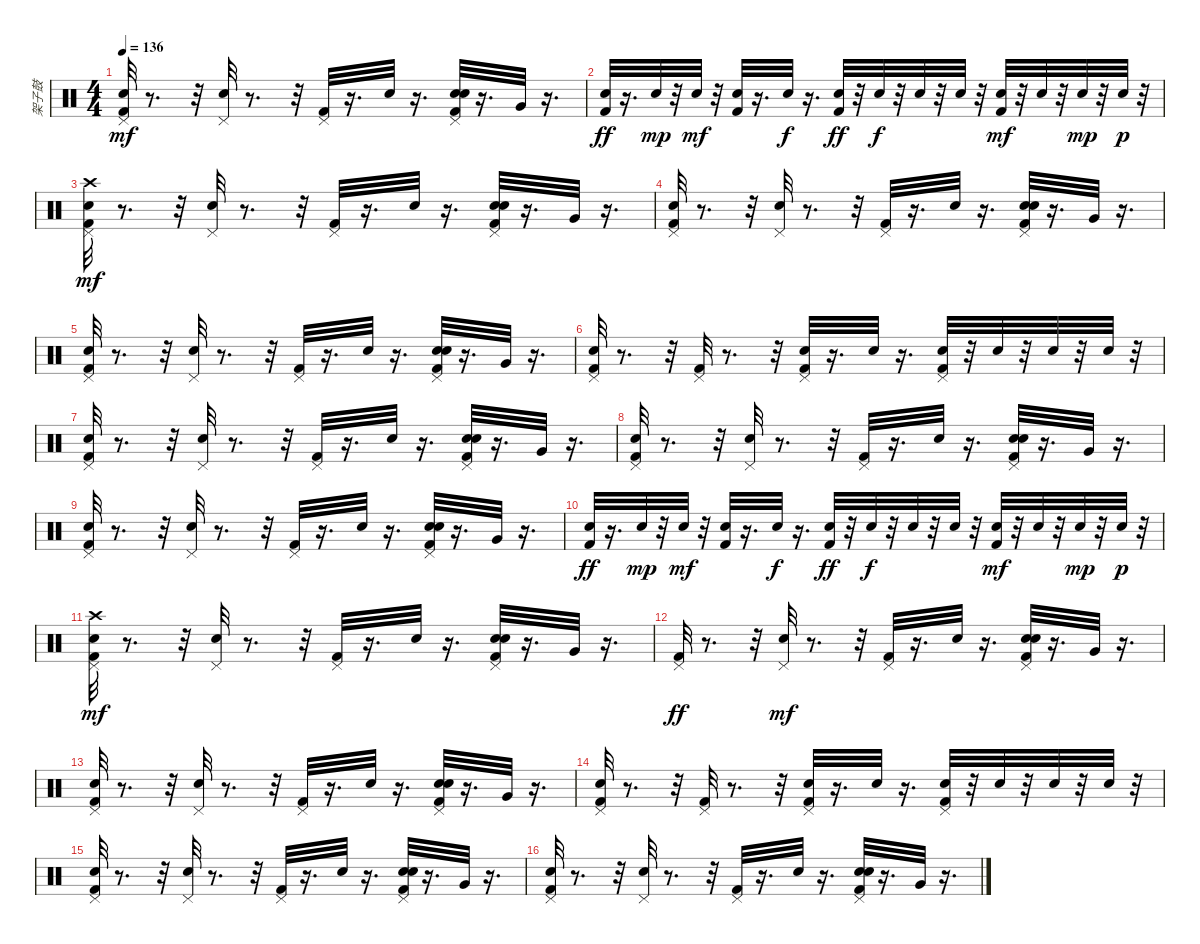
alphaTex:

\track ("架子鼓" "架子鼓") {instrument percussion}
\staff {score}
\articulation defaults
\ts (4 4)
\tempo 136
\clef neutral
\ks c
("Pedal Hi-Hat (hit)" "Kick (hit) 2" "Metronome (bell)").32{dy mf} r.8{d} r.32 ("Pedal Hi-Hat (hit)" "Metronome (bell)").32 r.8{d} r.32 ("Pedal Hi-Hat (hit)" "Kick (hit) 2").32 r.16{d} "Metronome (bell)".32 r.16{d} ("Pedal Hi-Hat (hit)" "Electric Snare (hit)" "Kick (hit) 2" "Metronome (bell)").32 r.16{d} "Very Low Tom (hit)".32 r.16{d} |
("Metronome (bell)" "Kick (hit) 2").32{dy ff} r.16{d} "Metronome (bell)".32{dy mp} r.32 "Metronome (bell)".32{dy mf} r.32 ("Metronome (bell)" "Kick (hit) 2").32 r.16{d} "Metronome (bell)".32{dy f} r.16{d} ("Kick (hit) 2" "Metronome (bell)").32{dy ff} r.32 "Metronome (bell)".32{dy f} r.32 "Metronome (bell)".32 r.32 "Metronome (bell)".32 r.32 ("Kick (hit) 2" "Metronome (bell)").32{dy mf} r.32 "Metronome (bell)".32 r.32 "Metronome (bell)".32{dy mp} r.32 "Metronome (bell)".32{dy p} r.32 |
("Pedal Hi-Hat (hit)" "Kick (hit) 2" "Metronome (bell)" "Crash high (hit)").32{dy mf} r.8{d} r.32 ("Pedal Hi-Hat (hit)" "Metronome (bell)").32 r.8{d} r.32 ("Pedal Hi-Hat (hit)" "Kick (hit) 2").32 r.16{d} "Metronome (bell)".32 r.16{d} ("Pedal Hi-Hat (hit)" "Electric Snare (hit)" "Kick (hit) 2" "Metronome (bell)").32 r.16{d} "Very Low Tom (hit)".32 r.16{d} |
("Pedal Hi-Hat (hit)" "Kick (hit) 2" "Metronome (bell)").32 r.8{d} r.32 ("Pedal Hi-Hat (hit)" "Metronome (bell)").32 r.8{d} r.32 ("Pedal Hi-Hat (hit)" "Kick (hit) 2").32 r.16{d} "Metronome (bell)".32 r.16{d} ("Pedal Hi-Hat (hit)" "Electric Snare (hit)" "Kick (hit) 2" "Metronome (bell)").32 r.16{d} "Very Low Tom (hit)".32 r.16{d} |
("Pedal Hi-Hat (hit)" "Kick (hit) 2" "Metronome (bell)").32 r.8{d} r.32 ("Pedal Hi-Hat (hit)" "Metronome (bell)").32 r.8{d} r.32 ("Pedal Hi-Hat (hit)" "Kick (hit) 2").32 r.16{d} "Metronome (bell)".32 r.16{d} ("Pedal Hi-Hat (hit)" "Electric Snare (hit)" "Kick (hit) 2" "Metronome (bell)").32 r.16{d} "Very Low Tom (hit)".32 r.16{d} |
("Pedal Hi-Hat (hit)" "Kick (hit) 2" "Metronome (bell)").32 r.8{d} r.32 ("Pedal Hi-Hat (hit)" "Kick (hit) 2").32 r.8{d} r.32 ("Pedal Hi-Hat (hit)" "Kick (hit) 2" "Metronome (bell)").32 r.16{d} "Metronome (bell)".32 r.16{d} ("Pedal Hi-Hat (hit)" "Kick (hit) 2" "Metronome (bell)").32 r.32 "Metronome (bell)".32 r.32 "Metronome (bell)".32 r.32 "Metronome (bell)".32 r.32 |
("Pedal Hi-Hat (hit)" "Kick (hit) 2" "Metronome (bell)").32 r.8{d} r.32 ("Pedal Hi-Hat (hit)" "Metronome (bell)").32 r.8{d} r.32 ("Pedal Hi-Hat (hit)" "Kick (hit) 2").32 r.16{d} "Metronome (bell)".32 r.16{d} ("Pedal Hi-Hat (hit)" "Electric Snare (hit)" "Kick (hit) 2" "Metronome (bell)").32 r.16{d} "Very Low Tom (hit)".32 r.16{d} |
("Pedal Hi-Hat (hit)" "Kick (hit) 2" "Metronome (bell)").32 r.8{d} r.32 ("Pedal Hi-Hat (hit)" "Metronome (bell)").32 r.8{d} r.32 ("Pedal Hi-Hat (hit)" "Kick (hit) 2").32 r.16{d} "Metronome (bell)".32 r.16{d} ("Pedal Hi-Hat (hit)" "Electric Snare (hit)" "Kick (hit) 2" "Metronome (bell)").32 r.16{d} "Very Low Tom (hit)".32 r.16{d} |
("Pedal Hi-Hat (hit)" "Kick (hit) 2" "Metronome (bell)").32 r.8{d} r.32 ("Pedal Hi-Hat (hit)" "Metronome (bell)").32 r.8{d} r.32 ("Pedal Hi-Hat (hit)" "Kick (hit) 2").32 r.16{d} "Metronome (bell)".32 r.16{d} ("Pedal Hi-Hat (hit)" "Electric Snare (hit)" "Kick (hit) 2" "Metronome (bell)").32 r.16{d} "Very Low Tom (hit)".32 r.16{d} |
("Metronome (bell)" "Kick (hit) 2").32{dy ff} r.16{d} "Metronome (bell)".32{dy mp} r.32 "Metronome (bell)".32{dy mf} r.32 ("Metronome (bell)" "Kick (hit) 2").32 r.16{d} "Metronome (bell)".32{dy f} r.16{d} ("Kick (hit) 2" "Metronome (bell)").32{dy ff} r.32 "Metronome (bell)".32{dy f} r.32 "Metronome (bell)".32 r.32 "Metronome (bell)".32 r.32 ("Kick (hit) 2" "Metronome (bell)").32{dy mf} r.32 "Metronome (bell)".32 r.32 "Metronome (bell)".32{dy mp} r.32 "Metronome (bell)".32{dy p} r.32 |
("Pedal Hi-Hat (hit)" "Kick (hit) 2" "Metronome (bell)" "Crash high (hit)").32{dy mf} r.8{d} r.32 ("Pedal Hi-Hat (hit)" "Metronome (bell)").32 r.8{d} r.32 ("Pedal Hi-Hat (hit)" "Kick (hit) 2").32 r.16{d} "Metronome (bell)".32 r.16{d} ("Pedal Hi-Hat (hit)" "Electric Snare (hit)" "Kick (hit) 2" "Metronome (bell)").32 r.16{d} "Very Low Tom (hit)".32 r.16{d} |
("Pedal Hi-Hat (hit)" "Kick (hit) 2").32{dy ff} r.8{d} r.32 ("Pedal Hi-Hat (hit)" "Metronome (bell)").32{dy mf} r.8{d} r.32 ("Pedal Hi-Hat (hit)" "Kick (hit) 2").32 r.16{d} "Metronome (bell)".32 r.16{d} ("Pedal Hi-Hat (hit)" "Electric Snare (hit)" "Kick (hit) 2" "Metronome (bell)").32 r.16{d} "Very Low Tom (hit)".32 r.16{d} |
("Pedal Hi-Hat (hit)" "Kick (hit) 2" "Metronome (bell)").32 r.8{d} r.32 ("Pedal Hi-Hat (hit)" "Metronome (bell)").32 r.8{d} r.32 ("Pedal Hi-Hat (hit)" "Kick (hit) 2").32 r.16{d} "Metronome (bell)".32 r.16{d} ("Pedal Hi-Hat (hit)" "Electric Snare (hit)" "Kick (hit) 2" "Metronome (bell)").32 r.16{d} "Very Low Tom (hit)".32 r.16{d} |
("Pedal Hi-Hat (hit)" "Kick (hit) 2" "Metronome (bell)").32 r.8{d} r.32 ("Pedal Hi-Hat (hit)" "Kick (hit) 2").32 r.8{d} r.32 ("Pedal Hi-Hat (hit)" "Kick (hit) 2" "Metronome (bell)").32 r.16{d} "Metronome (bell)".32 r.16{d} ("Pedal Hi-Hat (hit)" "Kick (hit) 2" "Metronome (bell)").32 r.32 "Metronome (bell)".32 r.32 "Metronome (bell)".32 r.32 "Metronome (bell)".32 r.32 |
("Pedal Hi-Hat (hit)" "Kick (hit) 2" "Metronome (bell)").32 r.8{d} r.32 ("Pedal Hi-Hat (hit)" "Metronome (bell)").32 r.8{d} r.32 ("Pedal Hi-Hat (hit)" "Kick (hit) 2").32 r.16{d} "Metronome (bell)".32 r.16{d} ("Pedal Hi-Hat (hit)" "Electric Snare (hit)" "Kick (hit) 2" "Metronome (bell)").32 r.16{d} "Very Low Tom (hit)".32 r.16{d} |
("Pedal Hi-Hat (hit)" "Kick (hit) 2" "Metronome (bell)").32 r.8{d} r.32 ("Pedal Hi-Hat (hit)" "Metronome (bell)").32 r.8{d} r.32 ("Pedal Hi-Hat (hit)" "Kick (hit) 2").32 r.16{d} "Metronome (bell)".32 r.16{d} ("Pedal Hi-Hat (hit)" "Electric Snare (hit)" "Kick (hit) 2" "Metronome (bell)").32 r.16{d} "Very Low Tom (hit)".32 r.16{d}
